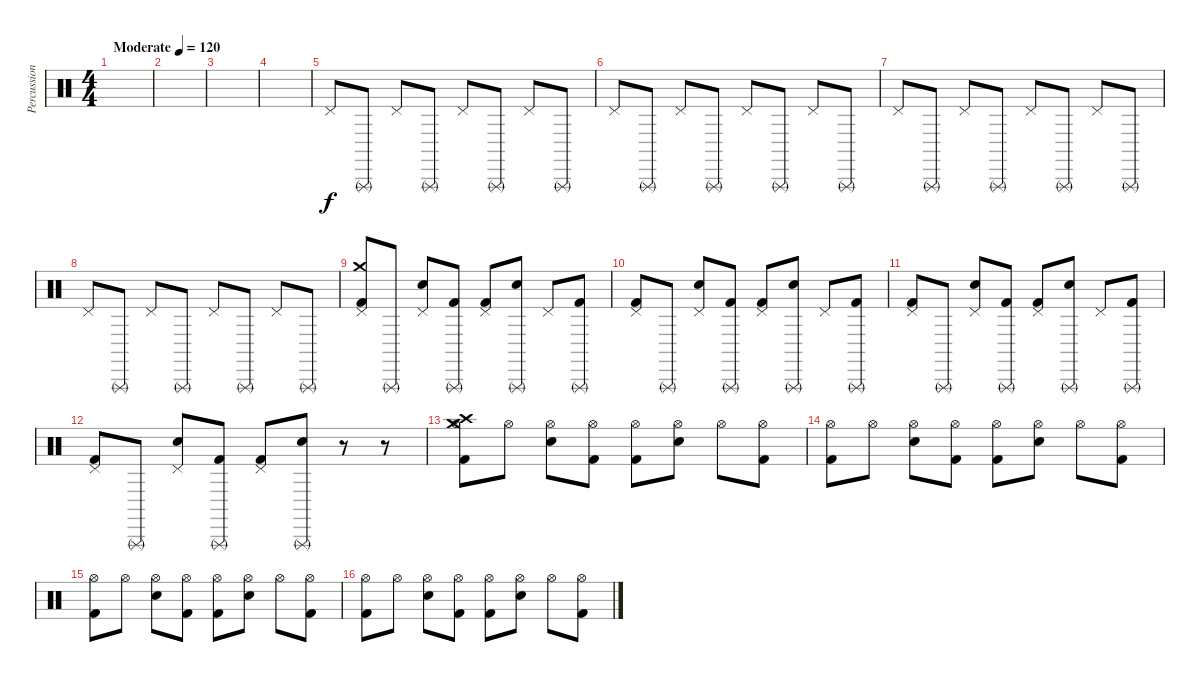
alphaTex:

\track ("Percussion" "Percussion") {instrument percussion}
\staff {score}
\articulation defaults
\ts (4 4)
\tempo (120 "Moderate")
\clef neutral
\ks c
|
|
|
|
"Pedal Hi-Hat (hit)".8 "Triangle (rnute)".8 "Pedal Hi-Hat (hit)".8 "Triangle (rnute)".8 "Pedal Hi-Hat (hit)".8 "Triangle (rnute)".8 "Pedal Hi-Hat (hit)".8 "Triangle (rnute)".8 |
"Pedal Hi-Hat (hit)".8 "Triangle (rnute)".8 "Pedal Hi-Hat (hit)".8 "Triangle (rnute)".8 "Pedal Hi-Hat (hit)".8 "Triangle (rnute)".8 "Pedal Hi-Hat (hit)".8 "Triangle (rnute)".8 |
"Pedal Hi-Hat (hit)".8 "Triangle (rnute)".8 "Pedal Hi-Hat (hit)".8 "Triangle (rnute)".8 "Pedal Hi-Hat (hit)".8 "Triangle (rnute)".8 "Pedal Hi-Hat (hit)".8 "Triangle (rnute)".8 |
"Pedal Hi-Hat (hit)".8 "Triangle (rnute)".8 "Pedal Hi-Hat (hit)".8 "Triangle (rnute)".8 "Pedal Hi-Hat (hit)".8 "Triangle (rnute)".8 "Pedal Hi-Hat (hit)".8 "Triangle (rnute)".8 |
("Crash medium (hit)" "Pedal Hi-Hat (hit)" "Kick (hit) 2").8 "Triangle (rnute)".8 ("Pedal Hi-Hat (hit)" "Snare (hit) 2").8 ("Triangle (rnute)" "Kick (hit) 2").8 ("Pedal Hi-Hat (hit)" "Kick (hit) 2").8 ("Triangle (rnute)" "Snare (hit) 2").8 "Pedal Hi-Hat (hit)".8 ("Triangle (rnute)" "Kick (hit) 2").8 |
("Pedal Hi-Hat (hit)" "Kick (hit) 2").8 "Triangle (rnute)".8 ("Pedal Hi-Hat (hit)" "Snare (hit) 2").8 ("Triangle (rnute)" "Kick (hit) 2").8 ("Pedal Hi-Hat (hit)" "Kick (hit) 2").8 ("Triangle (rnute)" "Snare (hit) 2").8 "Pedal Hi-Hat (hit)".8 ("Triangle (rnute)" "Kick (hit) 2").8 |
("Pedal Hi-Hat (hit)" "Kick (hit) 2").8 "Triangle (rnute)".8 ("Pedal Hi-Hat (hit)" "Snare (hit) 2").8 ("Triangle (rnute)" "Kick (hit) 2").8 ("Pedal Hi-Hat (hit)" "Kick (hit) 2").8 ("Triangle (rnute)" "Snare (hit) 2").8 "Pedal Hi-Hat (hit)".8 ("Triangle (rnute)" "Kick (hit) 2").8 |
("Pedal Hi-Hat (hit)" "Kick (hit) 2").8 "Triangle (rnute)".8 ("Pedal Hi-Hat (hit)" "Snare (hit) 2").8 ("Triangle (rnute)" "Kick (hit) 2").8 ("Pedal Hi-Hat (hit)" "Kick (hit) 2").8 ("Triangle (rnute)" "Snare (hit) 2").8 r.8 r.8 |
("Crash medium (hit)" "Crash high (hit)" "Hi-Hat (open)" "Kick (hit) 2").8 "Hi-Hat (open)".8 ("Hi-Hat (open)" "Snare (hit) 2").8 ("Hi-Hat (open)" "Kick (hit) 2").8 ("Hi-Hat (open)" "Kick (hit) 2").8 ("Hi-Hat (open)" "Snare (hit) 2").8 "Hi-Hat (open)".8 ("Hi-Hat (open)" "Kick (hit) 2").8 |
("Hi-Hat (open)" "Kick (hit) 2").8 "Hi-Hat (open)".8 ("Hi-Hat (open)" "Snare (hit) 2").8 ("Hi-Hat (open)" "Kick (hit) 2").8 ("Hi-Hat (open)" "Kick (hit) 2").8 ("Hi-Hat (open)" "Snare (hit) 2").8 "Hi-Hat (open)".8 ("Hi-Hat (open)" "Kick (hit) 2").8 |
("Hi-Hat (open)" "Kick (hit) 2").8 "Hi-Hat (open)".8 ("Hi-Hat (open)" "Snare (hit) 2").8 ("Hi-Hat (open)" "Kick (hit) 2").8 ("Hi-Hat (open)" "Kick (hit) 2").8 ("Hi-Hat (open)" "Snare (hit) 2").8 "Hi-Hat (open)".8 ("Hi-Hat (open)" "Kick (hit) 2").8 |
("Hi-Hat (open)" "Kick (hit) 2").8 "Hi-Hat (open)".8 ("Hi-Hat (open)" "Snare (hit) 2").8 ("Hi-Hat (open)" "Kick (hit) 2").8 ("Hi-Hat (open)" "Kick (hit) 2").8 ("Hi-Hat (open)" "Snare (hit) 2").8 "Hi-Hat (open)".8 ("Hi-Hat (open)" "Kick (hit) 2").8
